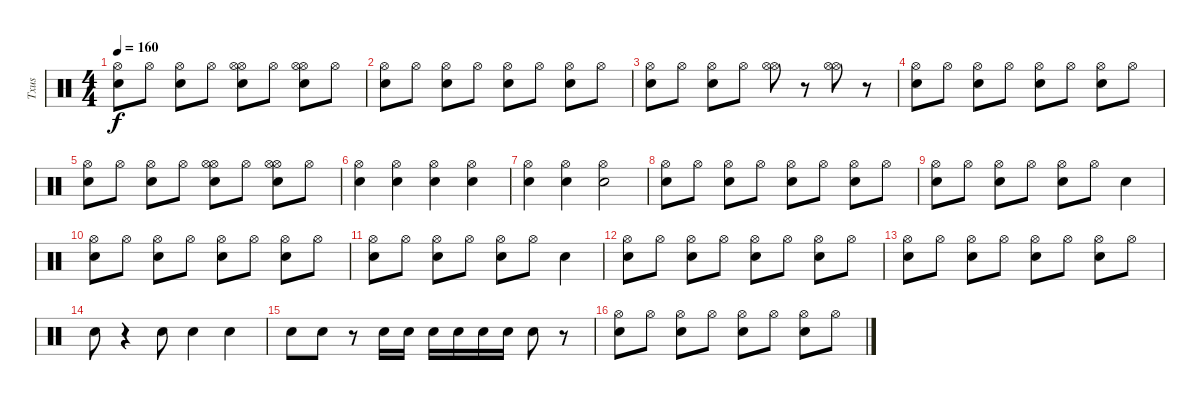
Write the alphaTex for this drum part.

\track ("Txus" "Txus") {instrument percussion}
\staff {score}
\articulation defaults
\ts (4 4)
\tempo 160
\clef neutral
\ks c
("Hi-Hat (open)" "Snare (hit) 2").8{dy f} "Hi-Hat (open)".8 ("Hi-Hat (open)" "Snare (hit) 2").8 "Hi-Hat (open)".8 ("Hi-Hat (open)" "Snare (hit) 2" "Hi-Hat (open)").8 "Hi-Hat (open)".8 ("Hi-Hat (open)" "Snare (hit) 2" "Hi-Hat (open)").8 "Hi-Hat (open)".8 |
("Hi-Hat (open)" "Snare (hit) 2").8 "Hi-Hat (open)".8 ("Hi-Hat (open)" "Snare (hit) 2").8 "Hi-Hat (open)".8 ("Hi-Hat (open)" "Snare (hit) 2").8 "Hi-Hat (open)".8 ("Hi-Hat (open)" "Snare (hit) 2").8 "Hi-Hat (open)".8 |
("Hi-Hat (open)" "Snare (hit) 2").8 "Hi-Hat (open)".8 ("Hi-Hat (open)" "Snare (hit) 2").8 "Hi-Hat (open)".8 ("Hi-Hat (open)" "Hi-Hat (open)").8 r.8 ("Hi-Hat (open)" "Hi-Hat (open)").8 r.8 |
("Hi-Hat (open)" "Snare (hit) 2").8 "Hi-Hat (open)".8 ("Hi-Hat (open)" "Snare (hit) 2").8 "Hi-Hat (open)".8 ("Hi-Hat (open)" "Snare (hit) 2").8 "Hi-Hat (open)".8 ("Hi-Hat (open)" "Snare (hit) 2").8 "Hi-Hat (open)".8 |
("Hi-Hat (open)" "Snare (hit) 2").8 "Hi-Hat (open)".8 ("Hi-Hat (open)" "Snare (hit) 2").8 "Hi-Hat (open)".8 ("Hi-Hat (open)" "Snare (hit) 2" "Hi-Hat (open)").8 "Hi-Hat (open)".8 ("Hi-Hat (open)" "Snare (hit) 2" "Hi-Hat (open)").8 "Hi-Hat (open)".8 |
("Snare (hit) 2" "Hi-Hat (open)").4 ("Snare (hit) 2" "Hi-Hat (open)").4 ("Snare (hit) 2" "Hi-Hat (open)").4 ("Snare (hit) 2" "Hi-Hat (open)").4 |
("Hi-Hat (open)" "Snare (hit) 2").4 ("Hi-Hat (open)" "Snare (hit) 2").4 ("Hi-Hat (open)" "Snare (hit) 2").2 |
("Snare (hit) 2" "Hi-Hat (open)").8 "Hi-Hat (open)".8 ("Snare (hit) 2" "Hi-Hat (open)").8 "Hi-Hat (open)".8 ("Snare (hit) 2" "Hi-Hat (open)").8 "Hi-Hat (open)".8 ("Snare (hit) 2" "Hi-Hat (open)").8 "Hi-Hat (open)".8 |
("Hi-Hat (open)" "Snare (hit) 2").8 "Hi-Hat (open)".8 ("Hi-Hat (open)" "Snare (hit) 2").8 "Hi-Hat (open)".8 ("Hi-Hat (open)" "Snare (hit) 2").8 "Hi-Hat (open)".8 "Snare (hit) 2".4 |
("Snare (hit) 2" "Hi-Hat (open)").8 "Hi-Hat (open)".8 ("Snare (hit) 2" "Hi-Hat (open)").8 "Hi-Hat (open)".8 ("Snare (hit) 2" "Hi-Hat (open)").8 "Hi-Hat (open)".8 ("Snare (hit) 2" "Hi-Hat (open)").8 "Hi-Hat (open)".8 |
("Hi-Hat (open)" "Snare (hit) 2").8 "Hi-Hat (open)".8 ("Hi-Hat (open)" "Snare (hit) 2").8 "Hi-Hat (open)".8 ("Hi-Hat (open)" "Snare (hit) 2").8 "Hi-Hat (open)".8 "Snare (hit) 2".4 |
("Snare (hit) 2" "Hi-Hat (open)").8 "Hi-Hat (open)".8 ("Snare (hit) 2" "Hi-Hat (open)").8 "Hi-Hat (open)".8 ("Snare (hit) 2" "Hi-Hat (open)").8 "Hi-Hat (open)".8 ("Snare (hit) 2" "Hi-Hat (open)").8 "Hi-Hat (open)".8 |
("Snare (hit) 2" "Hi-Hat (open)").8 "Hi-Hat (open)".8 ("Snare (hit) 2" "Hi-Hat (open)").8 "Hi-Hat (open)".8 ("Snare (hit) 2" "Hi-Hat (open)").8 "Hi-Hat (open)".8 ("Snare (hit) 2" "Hi-Hat (open)").8 "Hi-Hat (open)".8 |
"Snare (hit) 2".8 r.4 "Snare (hit) 2".8 "Snare (hit) 2".4 "Snare (hit) 2".4 |
"Snare (hit) 2".8 "Snare (hit) 2".8 r.8 "Snare (hit) 2".16 "Snare (hit) 2".16 "Snare (hit) 2".16 "Snare (hit) 2".16 "Snare (hit) 2".16 "Snare (hit) 2".16 "Snare (hit) 2".8 r.8 |
("Snare (hit) 2" "Hi-Hat (open)").8 "Hi-Hat (open)".8 ("Snare (hit) 2" "Hi-Hat (open)").8 "Hi-Hat (open)".8 ("Snare (hit) 2" "Hi-Hat (open)").8 "Hi-Hat (open)".8 ("Snare (hit) 2" "Hi-Hat (open)").8 "Hi-Hat (open)".8
